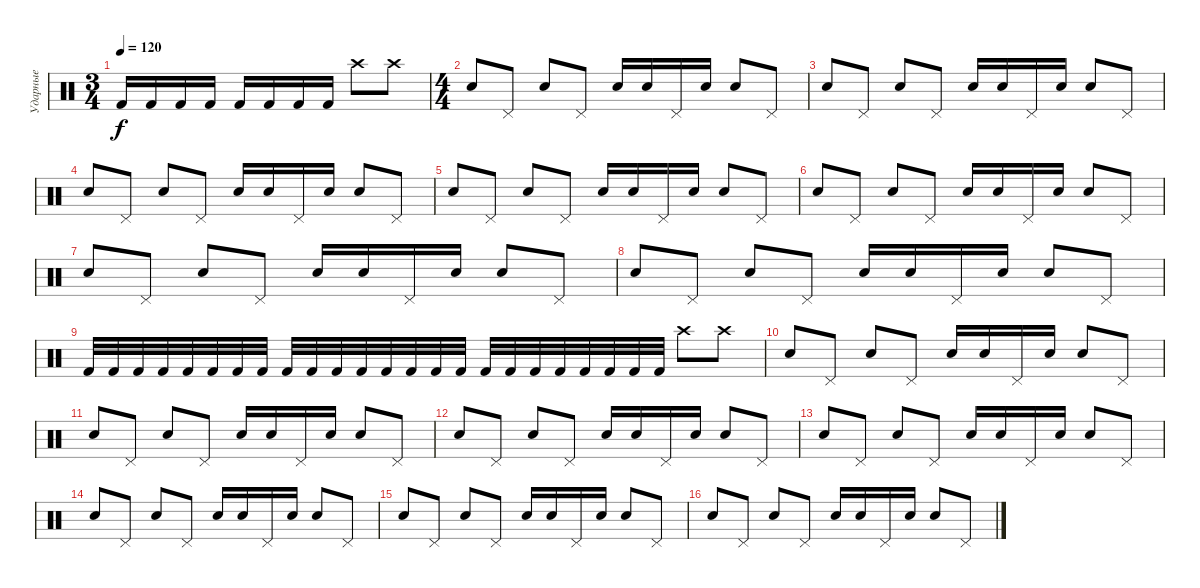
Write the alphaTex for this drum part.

\track ("Ударные" "Ударные") {instrument percussion}
\staff {score}
\articulation defaults
\ts (3 4)
\tempo 120
\clef neutral
\ks c "Kick (hit) 2".16{dy f} "Kick (hit) 2".16 "Kick (hit) 2".16 "Kick (hit) 2".16 "Kick (hit) 2".16 "Kick (hit) 2".16 "Kick (hit) 2".16 "Kick (hit) 2".16 "Crash high (hit)".8 "Crash high (hit)".8
|
\ts (4 4)
"Snare (hit) 2".8 "Pedal Hi-Hat (hit)".8 "Snare (hit) 2".8 "Pedal Hi-Hat (hit)".8 "Snare (hit) 2".16 "Snare (hit) 2".16 "Pedal Hi-Hat (hit)".16 "Snare (hit) 2".16 "Snare (hit) 2".8 "Pedal Hi-Hat (hit)".8 |
"Snare (hit) 2".8 "Pedal Hi-Hat (hit)".8 "Snare (hit) 2".8 "Pedal Hi-Hat (hit)".8 "Snare (hit) 2".16 "Snare (hit) 2".16 "Pedal Hi-Hat (hit)".16 "Snare (hit) 2".16 "Snare (hit) 2".8 "Pedal Hi-Hat (hit)".8 |
"Snare (hit) 2".8 "Pedal Hi-Hat (hit)".8 "Snare (hit) 2".8 "Pedal Hi-Hat (hit)".8 "Snare (hit) 2".16 "Snare (hit) 2".16 "Pedal Hi-Hat (hit)".16 "Snare (hit) 2".16 "Snare (hit) 2".8 "Pedal Hi-Hat (hit)".8 |
"Snare (hit) 2".8 "Pedal Hi-Hat (hit)".8 "Snare (hit) 2".8 "Pedal Hi-Hat (hit)".8 "Snare (hit) 2".16 "Snare (hit) 2".16 "Pedal Hi-Hat (hit)".16 "Snare (hit) 2".16 "Snare (hit) 2".8 "Pedal Hi-Hat (hit)".8 |
"Snare (hit) 2".8 "Pedal Hi-Hat (hit)".8 "Snare (hit) 2".8 "Pedal Hi-Hat (hit)".8 "Snare (hit) 2".16 "Snare (hit) 2".16 "Pedal Hi-Hat (hit)".16 "Snare (hit) 2".16 "Snare (hit) 2".8 "Pedal Hi-Hat (hit)".8 |
"Snare (hit) 2".8 "Pedal Hi-Hat (hit)".8 "Snare (hit) 2".8 "Pedal Hi-Hat (hit)".8 "Snare (hit) 2".16 "Snare (hit) 2".16 "Pedal Hi-Hat (hit)".16 "Snare (hit) 2".16 "Snare (hit) 2".8 "Pedal Hi-Hat (hit)".8 |
"Snare (hit) 2".8 "Pedal Hi-Hat (hit)".8 "Snare (hit) 2".8 "Pedal Hi-Hat (hit)".8 "Snare (hit) 2".16 "Snare (hit) 2".16 "Pedal Hi-Hat (hit)".16 "Snare (hit) 2".16 "Snare (hit) 2".8 "Pedal Hi-Hat (hit)".8 |
"Kick (hit) 2".32 "Kick (hit) 2".32 "Kick (hit) 2".32 "Kick (hit) 2".32 "Kick (hit) 2".32 "Kick (hit) 2".32 "Kick (hit) 2".32 "Kick (hit) 2".32 "Kick (hit) 2".32 "Kick (hit) 2".32 "Kick (hit) 2".32 "Kick (hit) 2".32 "Kick (hit) 2".32 "Kick (hit) 2".32 "Kick (hit) 2".32 "Kick (hit) 2".32 "Kick (hit) 2".32 "Kick (hit) 2".32 "Kick (hit) 2".32 "Kick (hit) 2".32 "Kick (hit) 2".32 "Kick (hit) 2".32 "Kick (hit) 2".32 "Kick (hit) 2".32 "Crash high (hit)".8 "Crash high (hit)".8 |
"Snare (hit) 2".8 "Pedal Hi-Hat (hit)".8 "Snare (hit) 2".8 "Pedal Hi-Hat (hit)".8 "Snare (hit) 2".16 "Snare (hit) 2".16 "Pedal Hi-Hat (hit)".16 "Snare (hit) 2".16 "Snare (hit) 2".8 "Pedal Hi-Hat (hit)".8 |
"Snare (hit) 2".8 "Pedal Hi-Hat (hit)".8 "Snare (hit) 2".8 "Pedal Hi-Hat (hit)".8 "Snare (hit) 2".16 "Snare (hit) 2".16 "Pedal Hi-Hat (hit)".16 "Snare (hit) 2".16 "Snare (hit) 2".8 "Pedal Hi-Hat (hit)".8 |
"Snare (hit) 2".8 "Pedal Hi-Hat (hit)".8 "Snare (hit) 2".8 "Pedal Hi-Hat (hit)".8 "Snare (hit) 2".16 "Snare (hit) 2".16 "Pedal Hi-Hat (hit)".16 "Snare (hit) 2".16 "Snare (hit) 2".8 "Pedal Hi-Hat (hit)".8 |
"Snare (hit) 2".8 "Pedal Hi-Hat (hit)".8 "Snare (hit) 2".8 "Pedal Hi-Hat (hit)".8 "Snare (hit) 2".16 "Snare (hit) 2".16 "Pedal Hi-Hat (hit)".16 "Snare (hit) 2".16 "Snare (hit) 2".8 "Pedal Hi-Hat (hit)".8 |
"Snare (hit) 2".8 "Pedal Hi-Hat (hit)".8 "Snare (hit) 2".8 "Pedal Hi-Hat (hit)".8 "Snare (hit) 2".16 "Snare (hit) 2".16 "Pedal Hi-Hat (hit)".16 "Snare (hit) 2".16 "Snare (hit) 2".8 "Pedal Hi-Hat (hit)".8 |
"Snare (hit) 2".8 "Pedal Hi-Hat (hit)".8 "Snare (hit) 2".8 "Pedal Hi-Hat (hit)".8 "Snare (hit) 2".16 "Snare (hit) 2".16 "Pedal Hi-Hat (hit)".16 "Snare (hit) 2".16 "Snare (hit) 2".8 "Pedal Hi-Hat (hit)".8 |
"Snare (hit) 2".8 "Pedal Hi-Hat (hit)".8 "Snare (hit) 2".8 "Pedal Hi-Hat (hit)".8 "Snare (hit) 2".16 "Snare (hit) 2".16 "Pedal Hi-Hat (hit)".16 "Snare (hit) 2".16 "Snare (hit) 2".8 "Pedal Hi-Hat (hit)".8
